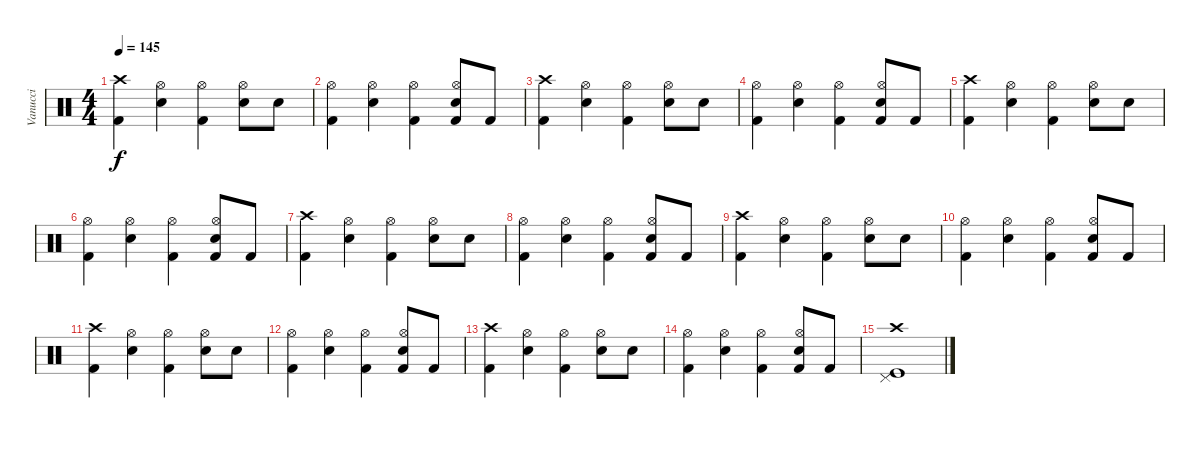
\track ("Vanucci" "Vanucci") {instrument percussion}
\staff {score}
\articulation defaults
\ts (4 4)
\tempo 145
\clef neutral
\ks c
("Crash high (hit)" "Kick (hit) 2").4{dy f} ("Hi-Hat (open)" "Electric Snare (hit)").4 ("Hi-Hat (open)" "Kick (hit) 2").4 ("Hi-Hat (open)" "Electric Snare (hit)").8 "Electric Snare (hit)".8 |
("Hi-Hat (open)" "Kick (hit) 2").4 ("Hi-Hat (open)" "Electric Snare (hit)").4 ("Hi-Hat (open)" "Kick (hit) 2").4 ("Hi-Hat (open)" "Electric Snare (hit)" "Kick (hit) 2").8 "Kick (hit) 2".8 |
("Crash high (hit)" "Kick (hit) 2").4 ("Hi-Hat (open)" "Electric Snare (hit)").4 ("Hi-Hat (open)" "Kick (hit) 2").4 ("Hi-Hat (open)" "Electric Snare (hit)").8 "Electric Snare (hit)".8 |
("Hi-Hat (open)" "Kick (hit) 2").4 ("Hi-Hat (open)" "Electric Snare (hit)").4 ("Hi-Hat (open)" "Kick (hit) 2").4 ("Hi-Hat (open)" "Electric Snare (hit)" "Kick (hit) 2").8 "Kick (hit) 2".8 |
("Crash high (hit)" "Kick (hit) 2").4 ("Hi-Hat (open)" "Electric Snare (hit)").4 ("Hi-Hat (open)" "Kick (hit) 2").4 ("Hi-Hat (open)" "Electric Snare (hit)").8 "Electric Snare (hit)".8 |
("Hi-Hat (open)" "Kick (hit) 2").4 ("Hi-Hat (open)" "Electric Snare (hit)").4 ("Hi-Hat (open)" "Kick (hit) 2").4 ("Hi-Hat (open)" "Electric Snare (hit)" "Kick (hit) 2").8 "Kick (hit) 2".8 |
("Crash high (hit)" "Kick (hit) 2").4 ("Hi-Hat (open)" "Electric Snare (hit)").4 ("Hi-Hat (open)" "Kick (hit) 2").4 ("Hi-Hat (open)" "Electric Snare (hit)").8 "Electric Snare (hit)".8 |
("Hi-Hat (open)" "Kick (hit) 2").4 ("Hi-Hat (open)" "Electric Snare (hit)").4 ("Hi-Hat (open)" "Kick (hit) 2").4 ("Hi-Hat (open)" "Electric Snare (hit)" "Kick (hit) 2").8 "Kick (hit) 2".8 |
("Crash high (hit)" "Kick (hit) 2").4 ("Hi-Hat (open)" "Electric Snare (hit)").4 ("Hi-Hat (open)" "Kick (hit) 2").4 ("Hi-Hat (open)" "Electric Snare (hit)").8 "Electric Snare (hit)".8 |
("Hi-Hat (open)" "Kick (hit) 2").4 ("Hi-Hat (open)" "Electric Snare (hit)").4 ("Hi-Hat (open)" "Kick (hit) 2").4 ("Hi-Hat (open)" "Electric Snare (hit)" "Kick (hit) 2").8 "Kick (hit) 2".8 |
("Crash high (hit)" "Kick (hit) 2").4 ("Hi-Hat (open)" "Electric Snare (hit)").4 ("Hi-Hat (open)" "Kick (hit) 2").4 ("Hi-Hat (open)" "Electric Snare (hit)").8 "Electric Snare (hit)".8 |
("Hi-Hat (open)" "Kick (hit) 2").4 ("Hi-Hat (open)" "Electric Snare (hit)").4 ("Hi-Hat (open)" "Kick (hit) 2").4 ("Hi-Hat (open)" "Electric Snare (hit)" "Kick (hit) 2").8 "Kick (hit) 2".8 |
("Crash high (hit)" "Kick (hit) 2").4 ("Hi-Hat (open)" "Electric Snare (hit)").4 ("Hi-Hat (open)" "Kick (hit) 2").4 ("Hi-Hat (open)" "Electric Snare (hit)").8 "Electric Snare (hit)".8 |
("Hi-Hat (open)" "Kick (hit) 2").4 ("Hi-Hat (open)" "Electric Snare (hit)").4 ("Hi-Hat (open)" "Kick (hit) 2").4 ("Hi-Hat (open)" "Electric Snare (hit)" "Kick (hit) 2").8 "Kick (hit) 2".8 |
("Crash high (hit)" "Kick (hit)" "Pedal Hi-Hat (hit)").1
